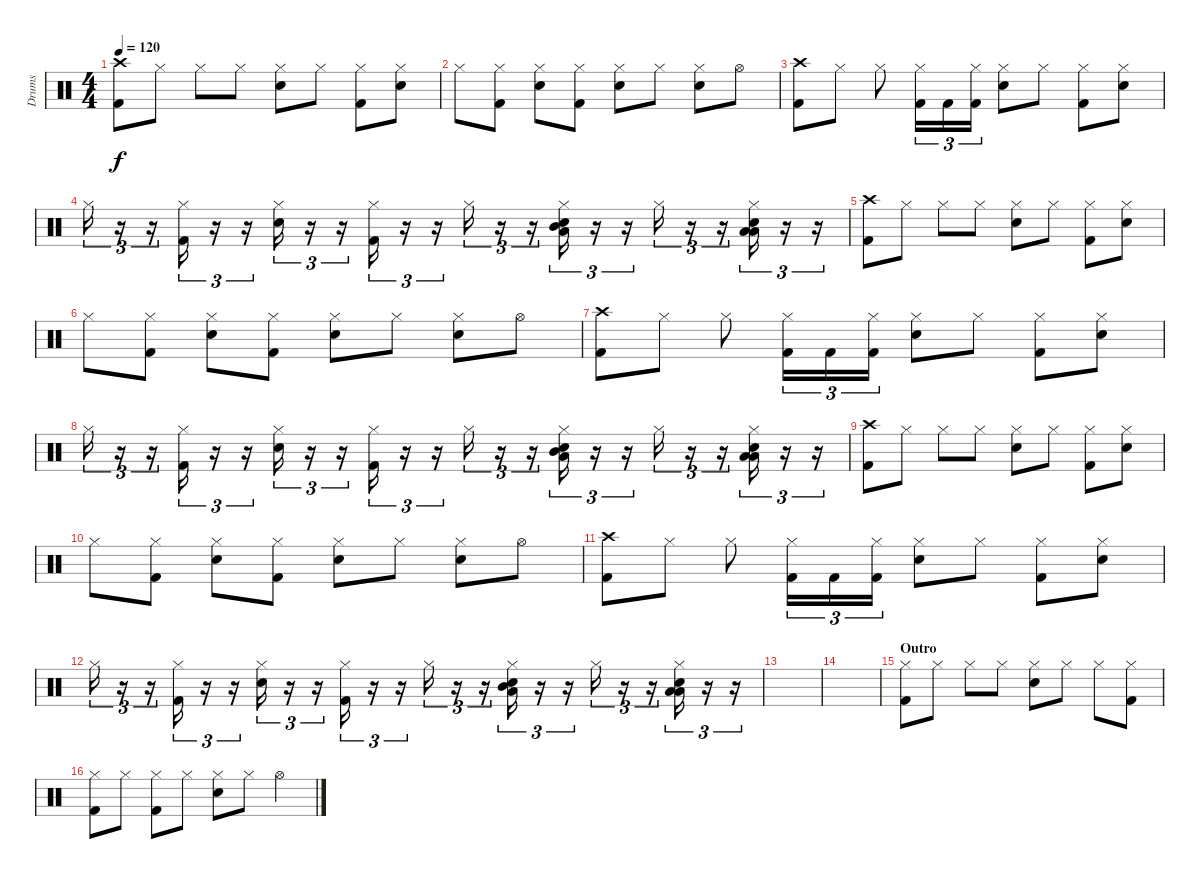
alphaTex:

\track ("Drums" "Drums") {instrument percussion}
\staff {score}
\articulation defaults
\ts (4 4)
\tempo 120
\clef neutral
\ks c
("Crash high (hit)" "Kick (hit) 2").8{dy f} "Hi-Hat (closed)".8 "Hi-Hat (closed)".8 "Hi-Hat (closed)".8 ("Hi-Hat (closed)" "Electric Snare (hit)").8 "Hi-Hat (closed)".8 ("Hi-Hat (closed)" "Kick (hit) 2").8 ("Hi-Hat (closed)" "Snare (hit) 2").8 |
"Hi-Hat (closed)".8 ("Hi-Hat (closed)" "Kick (hit) 2").8 ("Hi-Hat (closed)" "Electric Snare (hit)").8 ("Hi-Hat (closed)" "Kick (hit) 2").8 ("Hi-Hat (closed)" "Snare (hit) 2").8 "Hi-Hat (closed)".8 ("Hi-Hat (closed)" "Electric Snare (hit)").8 "Hi-Hat (open)".8 |
("Crash high (hit)" "Kick (hit) 2").8 "Hi-Hat (closed)".8 "Hi-Hat (closed)".8 ("Hi-Hat (closed)" "Kick (hit) 2").16{tu (3 2)} "Kick (hit) 2".16{tu (3 2)} ("Hi-Hat (closed)" "Kick (hit) 2").16{tu (3 2)} ("Hi-Hat (closed)" "Electric Snare (hit)").8 "Hi-Hat (closed)".8 ("Hi-Hat (closed)" "Kick (hit) 2").8 ("Hi-Hat (closed)" "Snare (hit) 2").8 |
"Hi-Hat (closed)".16{tu (3 2)} r.16{tu (3 2)} r.16{tu (3 2)} ("Hi-Hat (closed)" "Kick (hit) 2").16{tu (3 2)} r.16{tu (3 2)} r.16{tu (3 2)} ("Hi-Hat (closed)" "Electric Snare (hit)").16{tu (3 2)} r.16{tu (3 2)} r.16{tu (3 2)} ("Hi-Hat (closed)" "Kick (hit) 2").16{tu (3 2)} r.16{tu (3 2)} r.16{tu (3 2)} "Hi-Hat (closed)".16{tu (3 2)} r.16{tu (3 2)} r.16{tu (3 2)} ("Hi-Hat (closed)" "Low Tom (hit)" "Electric Snare (hit)" "Mid Tom (hit)").16{tu (3 2)} r.16{tu (3 2)} r.16{tu (3 2)} "Hi-Hat (closed)".16{tu (3 2)} r.16{tu (3 2)} r.16{tu (3 2)} ("Hi-Hat (closed)" "Low Floor Tom (hit)" "Electric Snare (hit)" "Low Tom (hit)").16{tu (3 2)} r.16{tu (3 2)} r.16{tu (3 2)} |
("Crash high (hit)" "Kick (hit) 2").8 "Hi-Hat (closed)".8 "Hi-Hat (closed)".8 "Hi-Hat (closed)".8 ("Hi-Hat (closed)" "Electric Snare (hit)").8 "Hi-Hat (closed)".8 ("Hi-Hat (closed)" "Kick (hit) 2").8 ("Hi-Hat (closed)" "Snare (hit) 2").8 |
"Hi-Hat (closed)".8 ("Hi-Hat (closed)" "Kick (hit) 2").8 ("Hi-Hat (closed)" "Electric Snare (hit)").8 ("Hi-Hat (closed)" "Kick (hit) 2").8 ("Hi-Hat (closed)" "Snare (hit) 2").8 "Hi-Hat (closed)".8 ("Hi-Hat (closed)" "Electric Snare (hit)").8 "Hi-Hat (open)".8 |
("Crash high (hit)" "Kick (hit) 2").8 "Hi-Hat (closed)".8 "Hi-Hat (closed)".8 ("Hi-Hat (closed)" "Kick (hit) 2").16{tu (3 2)} "Kick (hit) 2".16{tu (3 2)} ("Hi-Hat (closed)" "Kick (hit) 2").16{tu (3 2)} ("Hi-Hat (closed)" "Electric Snare (hit)").8 "Hi-Hat (closed)".8 ("Hi-Hat (closed)" "Kick (hit) 2").8 ("Hi-Hat (closed)" "Snare (hit) 2").8 |
"Hi-Hat (closed)".16{tu (3 2)} r.16{tu (3 2)} r.16{tu (3 2)} ("Hi-Hat (closed)" "Kick (hit) 2").16{tu (3 2)} r.16{tu (3 2)} r.16{tu (3 2)} ("Hi-Hat (closed)" "Electric Snare (hit)").16{tu (3 2)} r.16{tu (3 2)} r.16{tu (3 2)} ("Hi-Hat (closed)" "Kick (hit) 2").16{tu (3 2)} r.16{tu (3 2)} r.16{tu (3 2)} "Hi-Hat (closed)".16{tu (3 2)} r.16{tu (3 2)} r.16{tu (3 2)} ("Hi-Hat (closed)" "Low Tom (hit)" "Electric Snare (hit)" "Mid Tom (hit)").16{tu (3 2)} r.16{tu (3 2)} r.16{tu (3 2)} "Hi-Hat (closed)".16{tu (3 2)} r.16{tu (3 2)} r.16{tu (3 2)} ("Hi-Hat (closed)" "Low Floor Tom (hit)" "Electric Snare (hit)" "Low Tom (hit)").16{tu (3 2)} r.16{tu (3 2)} r.16{tu (3 2)} |
("Crash high (hit)" "Kick (hit) 2").8 "Hi-Hat (closed)".8 "Hi-Hat (closed)".8 "Hi-Hat (closed)".8 ("Hi-Hat (closed)" "Electric Snare (hit)").8 "Hi-Hat (closed)".8 ("Hi-Hat (closed)" "Kick (hit) 2").8 ("Hi-Hat (closed)" "Snare (hit) 2").8 |
"Hi-Hat (closed)".8 ("Hi-Hat (closed)" "Kick (hit) 2").8 ("Hi-Hat (closed)" "Electric Snare (hit)").8 ("Hi-Hat (closed)" "Kick (hit) 2").8 ("Hi-Hat (closed)" "Snare (hit) 2").8 "Hi-Hat (closed)".8 ("Hi-Hat (closed)" "Electric Snare (hit)").8 "Hi-Hat (open)".8 |
("Crash high (hit)" "Kick (hit) 2").8 "Hi-Hat (closed)".8 "Hi-Hat (closed)".8 ("Hi-Hat (closed)" "Kick (hit) 2").16{tu (3 2)} "Kick (hit) 2".16{tu (3 2)} ("Hi-Hat (closed)" "Kick (hit) 2").16{tu (3 2)} ("Hi-Hat (closed)" "Electric Snare (hit)").8 "Hi-Hat (closed)".8 ("Hi-Hat (closed)" "Kick (hit) 2").8 ("Hi-Hat (closed)" "Snare (hit) 2").8 |
"Hi-Hat (closed)".16{tu (3 2)} r.16{tu (3 2)} r.16{tu (3 2)} ("Hi-Hat (closed)" "Kick (hit) 2").16{tu (3 2)} r.16{tu (3 2)} r.16{tu (3 2)} ("Hi-Hat (closed)" "Electric Snare (hit)").16{tu (3 2)} r.16{tu (3 2)} r.16{tu (3 2)} ("Hi-Hat (closed)" "Kick (hit) 2").16{tu (3 2)} r.16{tu (3 2)} r.16{tu (3 2)} "Hi-Hat (closed)".16{tu (3 2)} r.16{tu (3 2)} r.16{tu (3 2)} ("Hi-Hat (closed)" "Low Tom (hit)" "Electric Snare (hit)" "Mid Tom (hit)").16{tu (3 2)} r.16{tu (3 2)} r.16{tu (3 2)} "Hi-Hat (closed)".16{tu (3 2)} r.16{tu (3 2)} r.16{tu (3 2)} ("Hi-Hat (closed)" "Low Floor Tom (hit)" "Electric Snare (hit)" "Low Tom (hit)").16{tu (3 2)} r.16{tu (3 2)} r.16{tu (3 2)} |
|
|
\section ("" "Outro")
("Hi-Hat (closed)" "Kick (hit) 2").8 "Hi-Hat (closed)".8 "Hi-Hat (closed)".8 "Hi-Hat (closed)".8 ("Hi-Hat (closed)" "Electric Snare (hit)").8 "Hi-Hat (closed)".8 "Hi-Hat (closed)".8 ("Hi-Hat (closed)" "Kick (hit) 2").8 |
("Hi-Hat (closed)" "Kick (hit) 2").8 "Hi-Hat (closed)".8 ("Hi-Hat (closed)" "Kick (hit) 2").8 "Hi-Hat (closed)".8 ("Hi-Hat (closed)" "Electric Snare (hit)").8 "Hi-Hat (closed)".8 "Hi-Hat (open)".4
